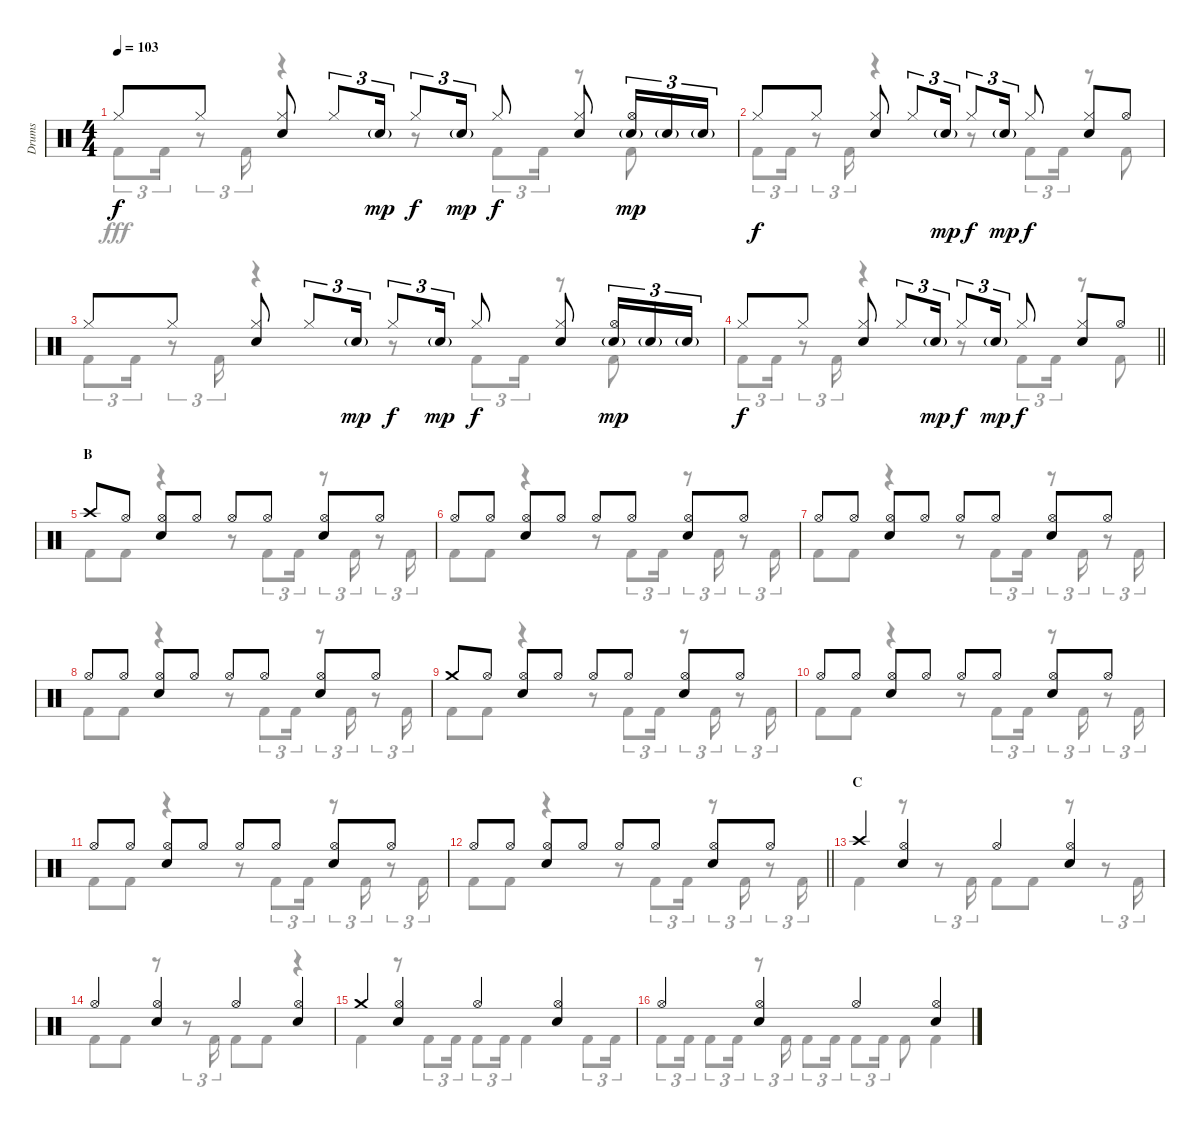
\track ("Drums" "Drums") {instrument percussion}
\staff {score}
\articulation defaults
\voice
\ts (4 4)
\tempo 103
\clef neutral
\ks c "Hi-Hat (closed)".8{dy f} "Hi-Hat (closed)".8
("Hi-Hat (closed)" "Snare (hit) 2").8 "Hi-Hat (closed)".8{tu (3 2)} "Snare (hit) 2"{g}.16{tu (3 2) dy mp} "Hi-Hat (closed)".8{tu (3 2) dy f} "Snare (hit) 2"{g}.16{tu (3 2) dy mp} "Hi-Hat (closed)".8{dy f} ("Hi-Hat (closed)" "Snare (hit) 2").8 ("Hi-Hat (open)" "Snare (hit) 2"{g}).16{tu (3 2) dy mp} "Snare (hit) 2"{g}.16{tu (3 2)} "Snare (hit) 2"{g}.16{tu (3 2)} |
"Hi-Hat (closed)".8{dy f} "Hi-Hat (closed)".8 ("Hi-Hat (closed)" "Snare (hit) 2").8 "Hi-Hat (closed)".8{tu (3 2)} "Snare (hit) 2"{g}.16{tu (3 2) dy mp} "Hi-Hat (closed)".8{tu (3 2) dy f} "Snare (hit) 2"{g}.16{tu (3 2) dy mp} "Hi-Hat (closed)".8{dy f} ("Hi-Hat (closed)" "Snare (hit) 2").8 "Hi-Hat (open)".8 |
"Hi-Hat (closed)".8 "Hi-Hat (closed)".8 ("Hi-Hat (closed)" "Snare (hit) 2").8 "Hi-Hat (closed)".8{tu (3 2)} "Snare (hit) 2"{g}.16{tu (3 2) dy mp} "Hi-Hat (closed)".8{tu (3 2) dy f} "Snare (hit) 2"{g}.16{tu (3 2) dy mp} "Hi-Hat (closed)".8{dy f} ("Hi-Hat (closed)" "Snare (hit) 2").8 ("Hi-Hat (open)" "Snare (hit) 2"{g}).16{tu (3 2) dy mp} "Snare (hit) 2"{g}.16{tu (3 2)} "Snare (hit) 2"{g}.16{tu (3 2)} |
\barLineRight lightlight "Hi-Hat (closed)".8{dy f} "Hi-Hat (closed)".8
("Hi-Hat (closed)" "Snare (hit) 2").8 "Hi-Hat (closed)".8{tu (3 2)} "Snare (hit) 2"{g}.16{tu (3 2) dy mp} "Hi-Hat (closed)".8{tu (3 2) dy f} "Snare (hit) 2"{g}.16{tu (3 2) dy mp} "Hi-Hat (closed)".8{dy f} ("Hi-Hat (closed)" "Snare (hit) 2").8 "Hi-Hat (open)".8 |
\section ("" "B")
"Crash high (hit)".8 "Hi-Hat (open)".8 ("Hi-Hat (open)" "Snare (hit) 2").8 "Hi-Hat (open)".8 "Hi-Hat (open)".8 "Hi-Hat (open)".8 ("Hi-Hat (open)" "Snare (hit) 2").8 "Hi-Hat (open)".8 |
"Hi-Hat (open)".8 "Hi-Hat (open)".8 ("Hi-Hat (open)" "Snare (hit) 2").8 "Hi-Hat (open)".8 "Hi-Hat (open)".8 "Hi-Hat (open)".8 ("Hi-Hat (open)" "Snare (hit) 2").8 "Hi-Hat (open)".8 |
"Hi-Hat (open)".8 "Hi-Hat (open)".8 ("Hi-Hat (open)" "Snare (hit) 2").8 "Hi-Hat (open)".8 "Hi-Hat (open)".8 "Hi-Hat (open)".8 ("Hi-Hat (open)" "Snare (hit) 2").8 "Hi-Hat (open)".8 |
"Hi-Hat (open)".8 "Hi-Hat (open)".8 ("Hi-Hat (open)" "Snare (hit) 2").8 "Hi-Hat (open)".8 "Hi-Hat (open)".8 "Hi-Hat (open)".8 ("Hi-Hat (open)" "Snare (hit) 2").8 "Hi-Hat (open)".8 |
"Crash medium (hit)".8 "Hi-Hat (open)".8 ("Hi-Hat (open)" "Snare (hit) 2").8 "Hi-Hat (open)".8 "Hi-Hat (open)".8 "Hi-Hat (open)".8 ("Hi-Hat (open)" "Snare (hit) 2").8 "Hi-Hat (open)".8 |
"Hi-Hat (open)".8 "Hi-Hat (open)".8 ("Hi-Hat (open)" "Snare (hit) 2").8 "Hi-Hat (open)".8 "Hi-Hat (open)".8 "Hi-Hat (open)".8 ("Hi-Hat (open)" "Snare (hit) 2").8 "Hi-Hat (open)".8 |
"Hi-Hat (open)".8 "Hi-Hat (open)".8 ("Hi-Hat (open)" "Snare (hit) 2").8 "Hi-Hat (open)".8 "Hi-Hat (open)".8 "Hi-Hat (open)".8 ("Hi-Hat (open)" "Snare (hit) 2").8 "Hi-Hat (open)".8 |
\barLineRight lightlight "Hi-Hat (open)".8 "Hi-Hat (open)".8
("Hi-Hat (open)" "Snare (hit) 2").8 "Hi-Hat (open)".8 "Hi-Hat (open)".8 "Hi-Hat (open)".8 ("Hi-Hat (open)" "Snare (hit) 2").8 "Hi-Hat (open)".8 |
\section ("" "C")
"Crash high (hit)".4 ("Hi-Hat (open)" "Snare (hit) 2").4 "Hi-Hat (open)".4 ("Hi-Hat (open)" "Snare (hit) 2").4 |
"Hi-Hat (open)".4 ("Hi-Hat (open)" "Snare (hit) 2").4 "Hi-Hat (open)".4 ("Hi-Hat (open)" "Snare (hit) 2").4 |
"Crash medium (hit)".4 ("Hi-Hat (open)" "Snare (hit) 2").4 "Hi-Hat (open)".4 ("Hi-Hat (open)" "Snare (hit) 2").4 |
"Hi-Hat (open)".4 ("Hi-Hat (open)" "Snare (hit) 2").4 "Hi-Hat (open)".4 ("Hi-Hat (open)" "Snare (hit) 2").4
\voice
\clef neutral
\ottava regular
\simile none
\ks c "Kick (hit) 2".8{tu (3 2) dy fff} "Kick (hit) 2".16{tu (3 2)}
r.8{tu (3 2)} "Kick (hit) 2".16{tu (3 2)} r.4 r.8 "Kick (hit) 2".8{tu (3 2)} "Kick (hit) 2".16{tu (3 2)} r.8 "Kick (hit) 2".8 |
"Kick (hit) 2".8{tu (3 2)} "Kick (hit) 2".16{tu (3 2)} r.8{tu (3 2)} "Kick (hit) 2".16{tu (3 2)} r.4 r.8 "Kick (hit) 2".8{tu (3 2)} "Kick (hit) 2".16{tu (3 2)} r.8 "Kick (hit) 2".8 |
"Kick (hit) 2".8{tu (3 2)} "Kick (hit) 2".16{tu (3 2)} r.8{tu (3 2)} "Kick (hit) 2".16{tu (3 2)} r.4 r.8 "Kick (hit) 2".8{tu (3 2)} "Kick (hit) 2".16{tu (3 2)} r.8 "Kick (hit) 2".8 |
\barLineRight lightlight "Kick (hit) 2".8{tu (3 2)} "Kick (hit) 2".16{tu (3 2)}
r.8{tu (3 2)} "Kick (hit) 2".16{tu (3 2)} r.4 r.8 "Kick (hit) 2".8{tu (3 2)} "Kick (hit) 2".16{tu (3 2)} r.8 "Kick (hit) 2".8 |
"Kick (hit) 2".8 "Kick (hit) 2".8 r.4 r.8 "Kick (hit) 2".8{tu (3 2)} "Kick (hit) 2".16{tu (3 2)} r.8{tu (3 2)} "Kick (hit) 2".16{tu (3 2)} r.8{tu (3 2)} "Kick (hit) 2".16{tu (3 2)} |
"Kick (hit) 2".8 "Kick (hit) 2".8 r.4 r.8 "Kick (hit) 2".8{tu (3 2)} "Kick (hit) 2".16{tu (3 2)} r.8{tu (3 2)} "Kick (hit) 2".16{tu (3 2)} r.8{tu (3 2)} "Kick (hit) 2".16{tu (3 2)} |
"Kick (hit) 2".8 "Kick (hit) 2".8 r.4 r.8 "Kick (hit) 2".8{tu (3 2)} "Kick (hit) 2".16{tu (3 2)} r.8{tu (3 2)} "Kick (hit) 2".16{tu (3 2)} r.8{tu (3 2)} "Kick (hit) 2".16{tu (3 2)} |
"Kick (hit) 2".8 "Kick (hit) 2".8 r.4 r.8 "Kick (hit) 2".8{tu (3 2)} "Kick (hit) 2".16{tu (3 2)} r.8{tu (3 2)} "Kick (hit) 2".16{tu (3 2)} r.8{tu (3 2)} "Kick (hit) 2".16{tu (3 2)} |
"Kick (hit) 2".8 "Kick (hit) 2".8 r.4 r.8 "Kick (hit) 2".8{tu (3 2)} "Kick (hit) 2".16{tu (3 2)} r.8{tu (3 2)} "Kick (hit) 2".16{tu (3 2)} r.8{tu (3 2)} "Kick (hit) 2".16{tu (3 2)} |
"Kick (hit) 2".8 "Kick (hit) 2".8 r.4 r.8 "Kick (hit) 2".8{tu (3 2)} "Kick (hit) 2".16{tu (3 2)} r.8{tu (3 2)} "Kick (hit) 2".16{tu (3 2)} r.8{tu (3 2)} "Kick (hit) 2".16{tu (3 2)} |
"Kick (hit) 2".8 "Kick (hit) 2".8 r.4 r.8 "Kick (hit) 2".8{tu (3 2)} "Kick (hit) 2".16{tu (3 2)} r.8{tu (3 2)} "Kick (hit) 2".16{tu (3 2)} r.8{tu (3 2)} "Kick (hit) 2".16{tu (3 2)} |
\barLineRight lightlight "Kick (hit) 2".8 "Kick (hit) 2".8
r.4 r.8 "Kick (hit) 2".8{tu (3 2)} "Kick (hit) 2".16{tu (3 2)} r.8{tu (3 2)} "Kick (hit) 2".16{tu (3 2)} r.8{tu (3 2)} "Kick (hit) 2".16{tu (3 2)} |
"Kick (hit) 2".4 r.8 r.8{tu (3 2)} "Kick (hit) 2".16{tu (3 2)} "Kick (hit) 2".8 "Kick (hit) 2".8 r.8 r.8{tu (3 2)} "Kick (hit) 2".16{tu (3 2)} |
"Kick (hit) 2".8 "Kick (hit) 2".8 r.8 r.8{tu (3 2)} "Kick (hit) 2".16{tu (3 2)} "Kick (hit) 2".8 "Kick (hit) 2".8 r.4 |
"Kick (hit) 2".4 r.8 "Kick (hit) 2".8{tu (3 2)} "Kick (hit) 2".16{tu (3 2)} "Kick (hit) 2".8{tu (3 2)} "Kick (hit) 2".16{tu (3 2)} "Kick (hit) 2".4 "Kick (hit) 2".8{tu (3 2)} "Kick (hit) 2".16{tu (3 2)} |
"Kick (hit) 2".8{tu (3 2)} "Kick (hit) 2".16{tu (3 2)} "Kick (hit) 2".8{tu (3 2)} "Kick (hit) 2".16{tu (3 2)} r.8{tu (3 2)} "Kick (hit) 2".16{tu (3 2)} "Kick (hit) 2".8{tu (3 2)} "Kick (hit) 2".16{tu (3 2)} "Kick (hit) 2".8{tu (3 2)} "Kick (hit) 2".16{tu (3 2)} "Kick (hit) 2".8 "Kick (hit) 2".4
